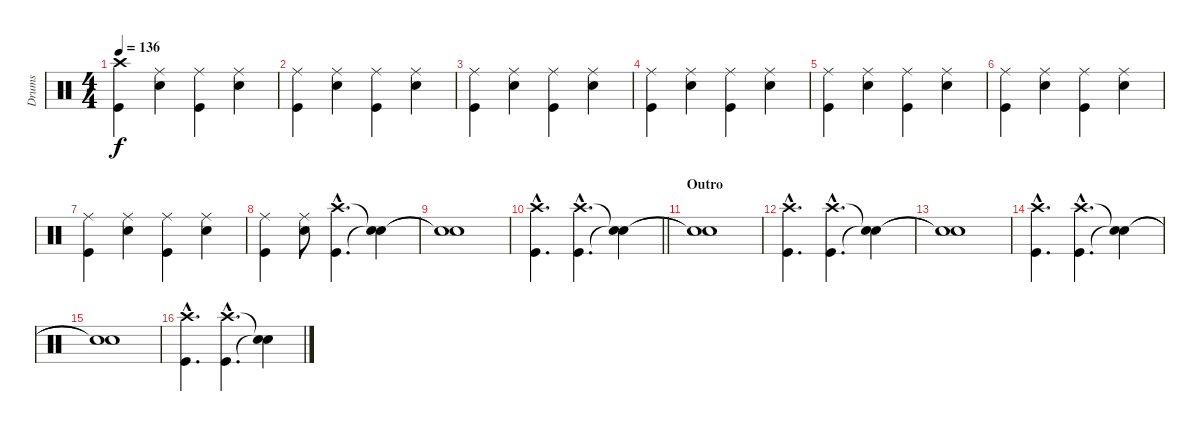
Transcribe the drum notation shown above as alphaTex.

\track ("Drums" "Drums") {instrument percussion}
\staff {score}
\articulation defaults
\ts (4 4)
\tempo 136
\clef neutral
\ks c
("Crash high (hit)" "Kick (hit)").4{dy f} ("Ride (middle)" "Snare (hit) 2").4 ("Ride (middle)" "Kick (hit)").4 ("Ride (middle)" "Snare (hit) 2").4 |
("Ride (middle)" "Kick (hit)").4 ("Ride (middle)" "Snare (hit) 2").4 ("Ride (middle)" "Kick (hit)").4 ("Ride (middle)" "Snare (hit) 2").4 |
("Ride (middle)" "Kick (hit)").4 ("Ride (middle)" "Snare (hit) 2").4 ("Ride (middle)" "Kick (hit)").4 ("Ride (middle)" "Snare (hit) 2").4 |
("Ride (middle)" "Kick (hit)").4 ("Ride (middle)" "Snare (hit) 2").4 ("Ride (middle)" "Kick (hit)").4 ("Ride (middle)" "Snare (hit) 2").4 |
("Ride (middle)" "Kick (hit)").4 ("Ride (middle)" "Snare (hit) 2").4 ("Ride (middle)" "Kick (hit)").4 ("Ride (middle)" "Snare (hit) 2").4 |
("Ride (middle)" "Kick (hit)").4 ("Ride (middle)" "Snare (hit) 2").4 ("Ride (middle)" "Kick (hit)").4 ("Ride (middle)" "Snare (hit) 2").4 |
("Ride (middle)" "Kick (hit)").4 ("Ride (middle)" "Snare (hit) 2").4 ("Ride (middle)" "Kick (hit)").4 ("Ride (middle)" "Snare (hit) 2").4 |
("Ride (middle)" "Kick (hit)").4 ("Ride (middle)" "Snare (hit) 2").8 ("Crash high (hit)"{hac} "Kick (hit)"{hac}).4{d} ("Snare (hit)"{t} "Snare (hit)"{t}).4 |
("Snare (hit)"{t} "Snare (hit)"{t}).1 |
\barLineRight lightlight
("Crash high (hit)"{hac} "Kick (hit)"{hac}).4{d} ("Crash high (hit)"{hac} "Kick (hit)"{hac}).4{d} ("Snare (hit)"{t} "Snare (hit)"{t}).4 |
\section ("" "Outro")
("Snare (hit)"{t} "Snare (hit)"{t}).1 |
("Crash high (hit)"{hac} "Kick (hit)"{hac}).4{d} ("Crash high (hit)"{hac} "Kick (hit)"{hac}).4{d} ("Snare (hit)"{t} "Snare (hit)"{t}).4 |
("Snare (hit)"{t} "Snare (hit)"{t}).1 |
("Crash high (hit)"{hac} "Kick (hit)"{hac}).4{d} ("Crash high (hit)"{hac} "Kick (hit)"{hac}).4{d} ("Snare (hit)"{t} "Snare (hit)"{t}).4 |
("Snare (hit)"{t} "Snare (hit)"{t}).1 |
("Crash high (hit)"{hac} "Kick (hit)"{hac}).4{d} ("Crash high (hit)"{hac} "Kick (hit)"{hac}).4{d} ("Snare (hit)"{t} "Snare (hit)"{t}).4
